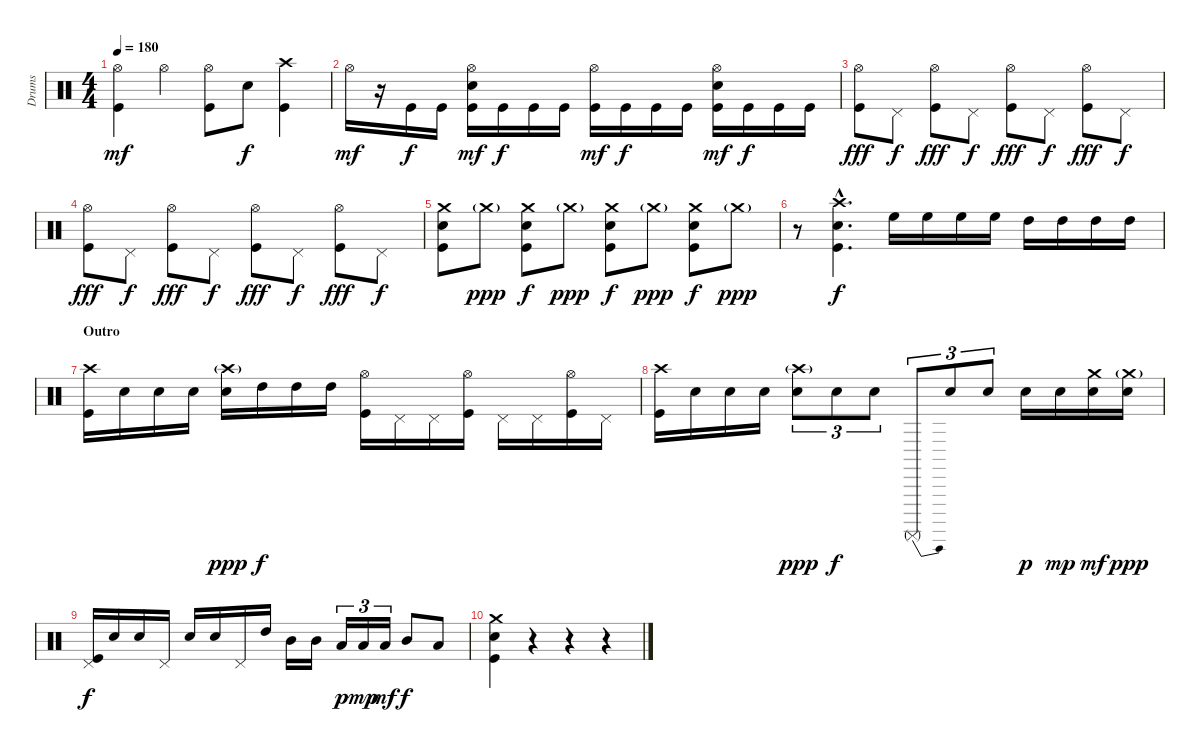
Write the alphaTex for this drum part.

\track ("Drums" "Drums") {instrument percussion}
\staff {score}
\articulation defaults
\ts (4 4)
\tempo 180
\clef neutral
\ks c
("Hi-Hat (open)" "Kick (hit)").4{dy mf} "Hi-Hat (open)".4 ("Hi-Hat (open)" "Kick (hit)").8 "Electric Snare (hit)".8{dy f} ("Crash high (hit)" "Kick (hit)").4 |
"Hi-Hat (open)".16{dy mf} r.16 "Kick (hit)".16{dy f} "Kick (hit)".16 ("Hi-Hat (open)" "Electric Snare (hit)" "Kick (hit)").16{dy mf} "Kick (hit)".16{dy f} "Kick (hit)".16 "Kick (hit)".16 ("Hi-Hat (open)" "Kick (hit)").16{dy mf} "Kick (hit)".16{dy f} "Kick (hit)".16 "Kick (hit)".16 ("Hi-Hat (open)" "Electric Snare (hit)" "Kick (hit)").16{dy mf} "Kick (hit)".16{dy f} "Kick (hit)".16 "Kick (hit)".16 |
("Hi-Hat (open)" "Kick (hit)").8{dy fff} "Pedal Hi-Hat (hit)".8{dy f} ("Hi-Hat (open)" "Kick (hit)").8{dy fff} "Pedal Hi-Hat (hit)".8{dy f} ("Hi-Hat (open)" "Kick (hit)").8{dy fff} "Pedal Hi-Hat (hit)".8{dy f} ("Hi-Hat (open)" "Kick (hit)").8{dy fff} "Pedal Hi-Hat (hit)".8{dy f} |
("Hi-Hat (open)" "Kick (hit)").8{dy fff} "Pedal Hi-Hat (hit)".8{dy f} ("Hi-Hat (open)" "Kick (hit)").8{dy fff} "Pedal Hi-Hat (hit)".8{dy f} ("Hi-Hat (open)" "Kick (hit)").8{dy fff} "Pedal Hi-Hat (hit)".8{dy f} ("Hi-Hat (open)" "Kick (hit)").8{dy fff} "Pedal Hi-Hat (hit)".8{dy f} |
("Crash medium (hit)" "Electric Snare (hit)" "Kick (hit)").8 "Crash medium (hit)"{g}.8{dy ppp} ("Crash medium (hit)" "Electric Snare (hit)" "Kick (hit)").8{dy f} "Crash medium (hit)"{g}.8{dy ppp} ("Crash medium (hit)" "Electric Snare (hit)" "Kick (hit)").8{dy f} "Crash medium (hit)"{g}.8{dy ppp} ("Crash medium (hit)" "Electric Snare (hit)" "Kick (hit)").8{dy f} "Crash medium (hit)"{g}.8{dy ppp} |
r.8 ("Crash high (hit)"{hac} "Electric Snare (hit)"{hac} "Kick (hit)"{hac}).4{d dy f} "High Floor Tom (hit)".16 "High Floor Tom (hit)".16 "High Floor Tom (hit)".16 "High Floor Tom (hit)".16 "High Tom (hit)".16 "High Tom (hit)".16 "High Tom (hit)".16 "High Tom (hit)".16 |
\section ("" "Outro")
("Crash high (hit)" "Kick (hit)").16 "Electric Snare (hit)".16 "Electric Snare (hit)".16 "Electric Snare (hit)".16 ("Crash high (hit)"{g} "Electric Snare (hit)").16{dy ppp} "High Tom (hit)".16{dy f} "High Tom (hit)".16 "High Tom (hit)".16 ("Hi-Hat (open)" "Kick (hit)").16 "Pedal Hi-Hat (hit)".16 "Pedal Hi-Hat (hit)".16 ("Hi-Hat (open)" "Kick (hit)").16 "Pedal Hi-Hat (hit)".16 "Pedal Hi-Hat (hit)".16 ("Hi-Hat (open)" "Kick (hit)").16 "Pedal Hi-Hat (hit)".16 |
("Crash high (hit)" "Kick (hit)").16 "Electric Snare (hit)".16 "Electric Snare (hit)".16 "Electric Snare (hit)".16 ("Crash high (hit)"{g} "Electric Snare (hit)").8{tu (3 2) dy ppp} "Electric Snare (hit)".8{tu (3 2) dy f} "Electric Snare (hit)".8{tu (3 2)} "Surdo (mute)"{be (bend 0 0 60 8)}.8{tu (3 2)} "Electric Snare (hit)".8{tu (3 2)} "Electric Snare (hit)".8{tu (3 2)} "Electric Snare (hit)".16{dy p} "Electric Snare (hit)".16{dy mp} ("Crash medium (hit)" "Electric Snare (hit)").16{dy mf} ("Crash medium (hit)"{g} "Electric Snare (hit)").16{dy ppp} |
("Pedal Hi-Hat (hit)" "Kick (hit)").16{dy f} "Electric Snare (hit)".16 "Electric Snare (hit)".16 "Pedal Hi-Hat (hit)".16 "Electric Snare (hit)".16 "Electric Snare (hit)".16 "Pedal Hi-Hat (hit)".16 "High Tom (hit)".16 "Mid Tom (hit)".16 "Mid Tom (hit)".16 "Low Tom (hit)".16{tu (3 2) dy p} "Low Tom (hit)".16{tu (3 2) dy mp} "Low Tom (hit)".16{tu (3 2) dy mf} "Mid Tom (hit)".8{dy f} "Low Tom (hit)".8 |
("Crash medium (hit)" "Electric Snare (hit)" "Kick (hit)").4 r.4{volume 0} r.4 r.4
